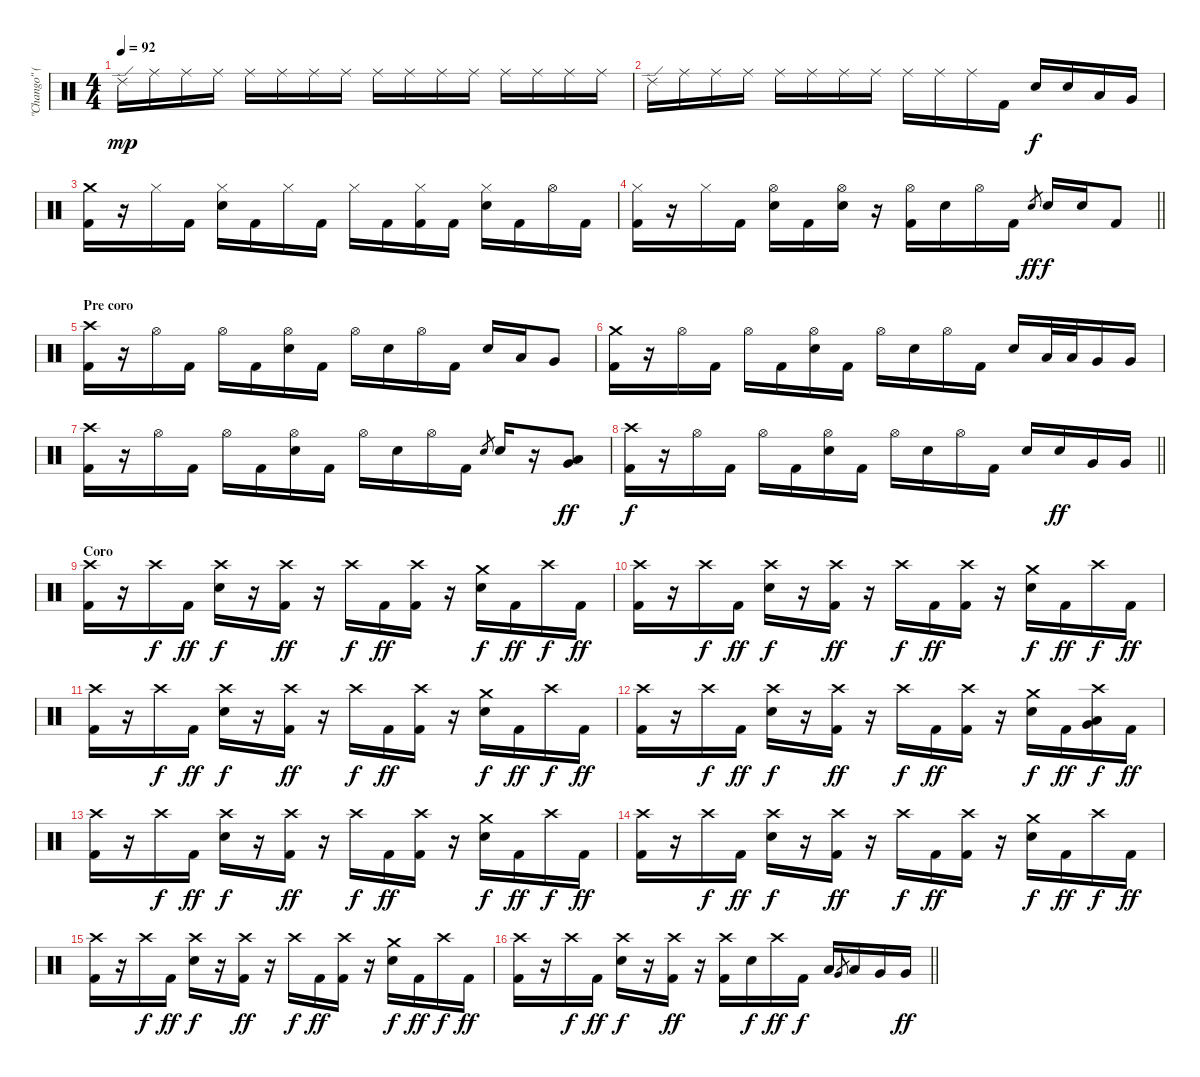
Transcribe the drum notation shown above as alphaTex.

\track ("\"Chango\" (Bateria)" "\"Chango\" (") {instrument percussion}
\staff {score}
\articulation defaults
\ts (4 4)
\tempo 92
\clef neutral
\ks c "Ride (edge) 2".16{dy mp} "Ride (middle)".16 "Ride (middle)".16 "Ride (middle)".16 "Ride (middle)".16 "Ride (middle)".16 "Ride (middle)".16 "Ride (middle)".16 "Ride (middle)".16 "Ride (middle)".16 "Ride (middle)".16 "Ride (middle)".16 "Ride (middle)".16 "Ride (middle)".16 "Ride (middle)".16 "Ride (middle)".16
|
"Ride (edge) 2".16 "Ride (middle)".16 "Ride (middle)".16 "Ride (middle)".16 "Ride (middle)".16 "Ride (middle)".16 "Ride (middle)".16 "Ride (middle)".16 "Ride (middle)".16 "Ride (middle)".16 "Ride (middle)".16 "Kick (hit) 2".16 "Electric Snare (hit)".16{dy f} "Electric Snare (hit)".16 "Low Tom (hit)".16 "Very Low Tom (hit)".16 |
("Crash medium (hit)" "Kick (hit) 2").16 r.16 "Hi-Hat (closed)".16 "Kick (hit) 2".16 ("Hi-Hat (closed)" "Electric Snare (hit)").16 "Kick (hit) 2".16 "Hi-Hat (closed)".16 "Kick (hit) 2".16 "Hi-Hat (closed)".16 "Kick (hit) 2".16 ("Hi-Hat (closed)" "Kick (hit) 2").16 "Kick (hit) 2".16 ("Hi-Hat (closed)" "Electric Snare (hit)").16 "Kick (hit) 2".16 "Hi-Hat (open)".16 "Kick (hit) 2".16 |
\barLineRight lightlight
("Hi-Hat (closed)" "Kick (hit) 2").16 r.16 "Hi-Hat (closed)".16 "Kick (hit) 2".16 ("Hi-Hat (open)" "Electric Snare (hit)").16 "Kick (hit) 2".16 ("Hi-Hat (open)" "Electric Snare (hit)").16 r.16 ("Hi-Hat (open)" "Kick (hit) 2").16 "Electric Snare (hit)".16 "Hi-Hat (open)".16 "Kick (hit) 2".16 "Electric Snare (hit)".8{gr dy ff} "Electric Snare (hit)".16{dy f} "Electric Snare (hit)".16 "Kick (hit) 2".8 |
\section ("" "Pre coro")
("Crash high (hit)" "Kick (hit) 2").16 r.16 "Hi-Hat (open)".16 "Kick (hit) 2".16 "Hi-Hat (open)".16 "Kick (hit) 2".16 ("Hi-Hat (open)" "Electric Snare (hit)").16 "Kick (hit) 2".16 "Hi-Hat (open)".16 "Electric Snare (hit)".16 "Hi-Hat (open)".16 "Kick (hit) 2".16 "Electric Snare (hit)".16 "Low Tom (hit)".16 "Very Low Tom (hit)".8 |
("Crash medium (hit)" "Kick (hit) 2").16 r.16 "Hi-Hat (open)".16 "Kick (hit) 2".16 "Hi-Hat (open)".16 "Kick (hit) 2".16 ("Hi-Hat (open)" "Electric Snare (hit)").16 "Kick (hit) 2".16 "Hi-Hat (open)".16 "Electric Snare (hit)".16 "Hi-Hat (open)".16 "Kick (hit) 2".16 "Electric Snare (hit)".16 "Low Tom (hit)".32 "Low Tom (hit)".32 "Very Low Tom (hit)".16 "Very Low Tom (hit)".16 |
("Crash high (hit)" "Kick (hit) 2").16 r.16 "Hi-Hat (open)".16 "Kick (hit) 2".16 "Hi-Hat (open)".16 "Kick (hit) 2".16 ("Hi-Hat (open)" "Electric Snare (hit)").16 "Kick (hit) 2".16 "Hi-Hat (open)".16 "Electric Snare (hit)".16 "Hi-Hat (open)".16 "Kick (hit) 2".16 "Electric Snare (hit)".8{gr} "Electric Snare (hit)".16 r.16 ("Very Low Tom (hit)" "Low Floor Tom (hit)").8{dy ff} |
\barLineRight lightlight
("Crash high (hit)" "Kick (hit) 2").16{dy f} r.16 "Hi-Hat (open)".16 "Kick (hit) 2".16 "Hi-Hat (open)".16 "Kick (hit) 2".16 ("Hi-Hat (open)" "Electric Snare (hit)").16 "Kick (hit) 2".16 "Hi-Hat (open)".16 "Electric Snare (hit)".16 "Hi-Hat (open)".16 "Kick (hit) 2".16 "Electric Snare (hit)".16 "Electric Snare (hit)".16{dy ff} "Very Low Tom (hit)".16 "Very Low Tom (hit)".16 |
\section ("" "Coro")
("Crash high (hit)" "Kick (hit) 2").16 r.16 "Crash high (hit)".16{dy f} "Kick (hit) 2".16{dy ff} ("Crash high (hit)" "Electric Snare (hit)").16{dy f} r.16 ("Crash high (hit)" "Kick (hit) 2").16{dy ff} r.16 "Crash high (hit)".16{dy f} "Kick (hit) 2".16{dy ff} ("Crash high (hit)" "Kick (hit) 2").16 r.16 ("Crash medium (hit)" "Electric Snare (hit)").16{dy f} "Kick (hit) 2".16{dy ff} "Crash high (hit)".16{dy f} "Kick (hit) 2".16{dy ff} |
("Crash high (hit)" "Kick (hit) 2").16 r.16 "Crash high (hit)".16{dy f} "Kick (hit) 2".16{dy ff} ("Crash high (hit)" "Electric Snare (hit)").16{dy f} r.16 ("Crash high (hit)" "Kick (hit) 2").16{dy ff} r.16 "Crash high (hit)".16{dy f} "Kick (hit) 2".16{dy ff} ("Crash high (hit)" "Kick (hit) 2").16 r.16 ("Crash medium (hit)" "Electric Snare (hit)").16{dy f} "Kick (hit) 2".16{dy ff} "Crash high (hit)".16{dy f} "Kick (hit) 2".16{dy ff} |
("Crash high (hit)" "Kick (hit) 2").16 r.16 "Crash high (hit)".16{dy f} "Kick (hit) 2".16{dy ff} ("Crash high (hit)" "Electric Snare (hit)").16{dy f} r.16 ("Crash high (hit)" "Kick (hit) 2").16{dy ff} r.16 "Crash high (hit)".16{dy f} "Kick (hit) 2".16{dy ff} ("Crash high (hit)" "Kick (hit) 2").16 r.16 ("Crash medium (hit)" "Electric Snare (hit)").16{dy f} "Kick (hit) 2".16{dy ff} "Crash high (hit)".16{dy f} "Kick (hit) 2".16{dy ff} |
("Crash high (hit)" "Kick (hit) 2").16 r.16 "Crash high (hit)".16{dy f} "Kick (hit) 2".16{dy ff} ("Crash high (hit)" "Electric Snare (hit)").16{dy f} r.16 ("Crash high (hit)" "Kick (hit) 2").16{dy ff} r.16 "Crash high (hit)".16{dy f} "Kick (hit) 2".16{dy ff} ("Crash high (hit)" "Kick (hit) 2").16 r.16 ("Crash medium (hit)" "Electric Snare (hit)").16{dy f} "Kick (hit) 2".16{dy ff} ("Crash high (hit)" "Very Low Tom (hit)" "Low Floor Tom (hit)").16{dy f} "Kick (hit) 2".16{dy ff} |
("Crash high (hit)" "Kick (hit) 2").16 r.16 "Crash high (hit)".16{dy f} "Kick (hit) 2".16{dy ff} ("Crash high (hit)" "Electric Snare (hit)").16{dy f} r.16 ("Crash high (hit)" "Kick (hit) 2").16{dy ff} r.16 "Crash high (hit)".16{dy f} "Kick (hit) 2".16{dy ff} ("Crash high (hit)" "Kick (hit) 2").16 r.16 ("Crash medium (hit)" "Electric Snare (hit)").16{dy f} "Kick (hit) 2".16{dy ff} "Crash high (hit)".16{dy f} "Kick (hit) 2".16{dy ff} |
("Crash high (hit)" "Kick (hit) 2").16 r.16 "Crash high (hit)".16{dy f} "Kick (hit) 2".16{dy ff} ("Crash high (hit)" "Electric Snare (hit)").16{dy f} r.16 ("Crash high (hit)" "Kick (hit) 2").16{dy ff} r.16 "Crash high (hit)".16{dy f} "Kick (hit) 2".16{dy ff} ("Crash high (hit)" "Kick (hit) 2").16 r.16 ("Crash medium (hit)" "Electric Snare (hit)").16{dy f} "Kick (hit) 2".16{dy ff} "Crash high (hit)".16{dy f} "Kick (hit) 2".16{dy ff} |
("Crash high (hit)" "Kick (hit) 2").16 r.16 "Crash high (hit)".16{dy f} "Kick (hit) 2".16{dy ff} ("Crash high (hit)" "Electric Snare (hit)").16{dy f} r.16 ("Crash high (hit)" "Kick (hit) 2").16{dy ff} r.16 "Crash high (hit)".16{dy f} "Kick (hit) 2".16{dy ff} ("Crash high (hit)" "Kick (hit) 2").16 r.16 ("Crash medium (hit)" "Electric Snare (hit)").16{dy f} "Kick (hit) 2".16{dy ff} "Crash high (hit)".16{dy f} "Kick (hit) 2".16{dy ff} |
\barLineRight lightlight
("Crash high (hit)" "Kick (hit) 2").16 r.16 "Crash high (hit)".16{dy f} "Kick (hit) 2".16{dy ff} ("Crash high (hit)" "Electric Snare (hit)").16{dy f} r.16 ("Crash high (hit)" "Kick (hit) 2").16{dy ff} r.16 ("Crash high (hit)" "Kick (hit) 2").16 "Electric Snare (hit)".16{dy f} "Crash high (hit)".16{dy ff} "Kick (hit) 2".16{dy f} "Low Tom (hit)".16 "Very Low Tom (hit)".8{gr} "Low Tom (hit)".16 "Very Low Tom (hit)".16 "Very Low Tom (hit)".16{dy ff}
